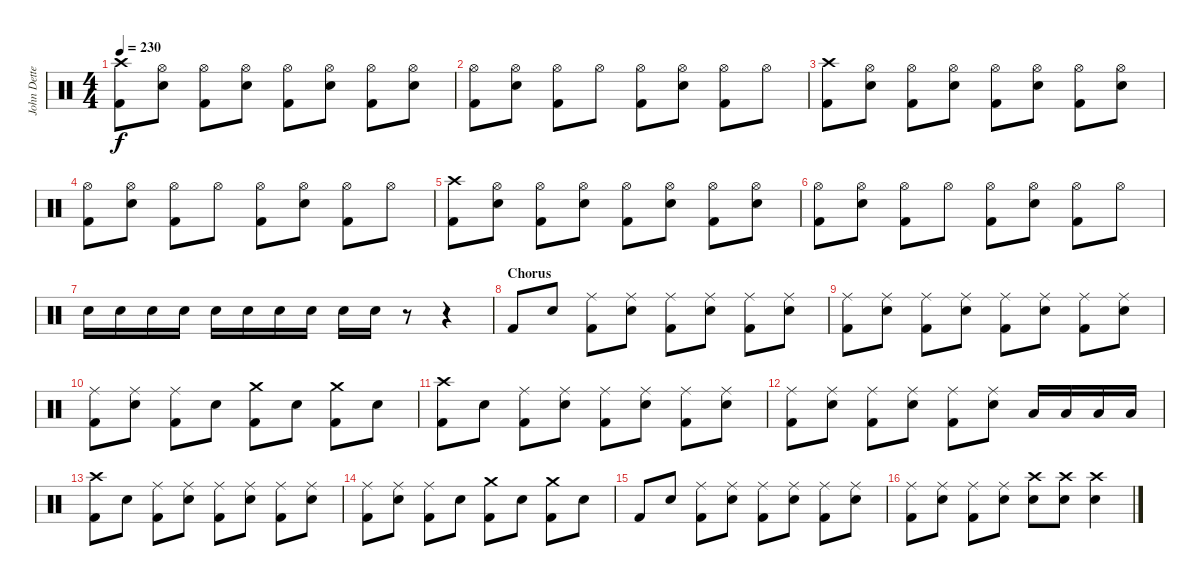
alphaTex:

\track ("John Dette" "John Dette") {instrument percussion}
\staff {score}
\articulation defaults
\ts (4 4)
\tempo 230
\clef neutral
\ks c
("Crash high (hit)" "Kick (hit) 2").8{dy f} ("Hi-Hat (open)" "Snare (hit) 2").8 ("Hi-Hat (open)" "Kick (hit) 2").8 ("Hi-Hat (open)" "Snare (hit) 2").8 ("Hi-Hat (open)" "Kick (hit) 2").8 ("Hi-Hat (open)" "Snare (hit) 2").8 ("Hi-Hat (open)" "Kick (hit) 2").8 ("Hi-Hat (open)" "Snare (hit) 2").8 |
("Hi-Hat (open)" "Kick (hit) 2").8 ("Hi-Hat (open)" "Snare (hit) 2").8 ("Hi-Hat (open)" "Kick (hit) 2").8 "Hi-Hat (open)".8 ("Hi-Hat (open)" "Kick (hit) 2").8 ("Hi-Hat (open)" "Snare (hit) 2").8 ("Hi-Hat (open)" "Kick (hit) 2").8 "Hi-Hat (open)".8 |
("Crash high (hit)" "Kick (hit) 2").8 ("Hi-Hat (open)" "Snare (hit) 2").8 ("Hi-Hat (open)" "Kick (hit) 2").8 ("Hi-Hat (open)" "Snare (hit) 2").8 ("Hi-Hat (open)" "Kick (hit) 2").8 ("Hi-Hat (open)" "Snare (hit) 2").8 ("Hi-Hat (open)" "Kick (hit) 2").8 ("Hi-Hat (open)" "Snare (hit) 2").8 |
("Hi-Hat (open)" "Kick (hit) 2").8 ("Hi-Hat (open)" "Snare (hit) 2").8 ("Hi-Hat (open)" "Kick (hit) 2").8 "Hi-Hat (open)".8 ("Hi-Hat (open)" "Kick (hit) 2").8 ("Hi-Hat (open)" "Snare (hit) 2").8 ("Hi-Hat (open)" "Kick (hit) 2").8 "Hi-Hat (open)".8 |
("Crash high (hit)" "Kick (hit) 2").8 ("Hi-Hat (open)" "Snare (hit) 2").8 ("Hi-Hat (open)" "Kick (hit) 2").8 ("Hi-Hat (open)" "Snare (hit) 2").8 ("Hi-Hat (open)" "Kick (hit) 2").8 ("Hi-Hat (open)" "Snare (hit) 2").8 ("Hi-Hat (open)" "Kick (hit) 2").8 ("Hi-Hat (open)" "Snare (hit) 2").8 |
("Hi-Hat (open)" "Kick (hit) 2").8 ("Hi-Hat (open)" "Snare (hit) 2").8 ("Hi-Hat (open)" "Kick (hit) 2").8 "Hi-Hat (open)".8 ("Hi-Hat (open)" "Kick (hit) 2").8 ("Hi-Hat (open)" "Snare (hit) 2").8 ("Hi-Hat (open)" "Kick (hit) 2").8 "Hi-Hat (open)".8 |
"Snare (hit) 2".16 "Snare (hit) 2".16 "Snare (hit) 2".16 "Snare (hit) 2".16 "Snare (hit) 2".16 "Snare (hit) 2".16 "Snare (hit) 2".16 "Snare (hit) 2".16 "Snare (hit) 2".16 "Snare (hit) 2".16 r.8 r.4 |
\section ("" "Chorus")
"Kick (hit) 2".8 "Snare (hit) 2".8 ("Ride (middle)" "Kick (hit) 2").8 ("Ride (middle)" "Snare (hit) 2").8 ("Ride (middle)" "Kick (hit) 2").8 ("Ride (middle)" "Snare (hit) 2").8 ("Ride (middle)" "Kick (hit) 2").8 ("Ride (middle)" "Snare (hit) 2").8 |
("Ride (middle)" "Kick (hit) 2").8 ("Ride (middle)" "Snare (hit) 2").8 ("Ride (middle)" "Kick (hit) 2").8 ("Ride (middle)" "Snare (hit) 2").8 ("Ride (middle)" "Kick (hit) 2").8 ("Ride (middle)" "Snare (hit) 2").8 ("Ride (middle)" "Kick (hit) 2").8 ("Ride (middle)" "Snare (hit) 2").8 |
("Ride (middle)" "Kick (hit) 2").8 ("Ride (middle)" "Snare (hit) 2").8 ("Ride (middle)" "Kick (hit) 2").8 "Snare (hit) 2".8 ("Crash medium (hit)" "Kick (hit) 2").8 "Snare (hit) 2".8 ("Crash medium (hit)" "Kick (hit) 2").8 "Snare (hit) 2".8 |
("Crash high (hit)" "Kick (hit) 2").8 "Snare (hit) 2".8 ("Ride (middle)" "Kick (hit) 2").8 ("Ride (middle)" "Snare (hit) 2").8 ("Ride (middle)" "Kick (hit) 2").8 ("Ride (middle)" "Snare (hit) 2").8 ("Ride (middle)" "Kick (hit) 2").8 ("Ride (middle)" "Snare (hit) 2").8 |
("Ride (middle)" "Kick (hit) 2").8 ("Ride (middle)" "Snare (hit) 2").8 ("Ride (middle)" "Kick (hit) 2").8 ("Ride (middle)" "Snare (hit) 2").8 ("Ride (middle)" "Kick (hit) 2").8 ("Ride (middle)" "Snare (hit) 2").8 "Low Floor Tom (hit)".16 "Low Floor Tom (hit)".16 "Low Floor Tom (hit)".16 "Low Floor Tom (hit)".16 |
("Crash high (hit)" "Kick (hit) 2").8 "Snare (hit) 2".8 ("Ride (middle)" "Kick (hit) 2").8 ("Ride (middle)" "Snare (hit) 2").8 ("Ride (middle)" "Kick (hit) 2").8 ("Ride (middle)" "Snare (hit) 2").8 ("Ride (middle)" "Kick (hit) 2").8 ("Ride (middle)" "Snare (hit) 2").8 |
("Ride (middle)" "Kick (hit) 2").8 ("Ride (middle)" "Snare (hit) 2").8 ("Ride (middle)" "Kick (hit) 2").8 "Snare (hit) 2".8 ("Crash medium (hit)" "Kick (hit) 2").8 "Snare (hit) 2".8 ("Crash medium (hit)" "Kick (hit) 2").8 "Snare (hit) 2".8 |
"Kick (hit) 2".8 "Snare (hit) 2".8 ("Ride (middle)" "Kick (hit) 2").8 ("Ride (middle)" "Snare (hit) 2").8 ("Ride (middle)" "Kick (hit) 2").8 ("Ride (middle)" "Snare (hit) 2").8 ("Ride (middle)" "Kick (hit) 2").8 ("Ride (middle)" "Snare (hit) 2").8 |
("Ride (middle)" "Kick (hit) 2").8 ("Ride (middle)" "Snare (hit) 2").8 ("Ride (middle)" "Kick (hit) 2").8 ("Ride (middle)" "Snare (hit) 2").8 ("Crash high (hit)" "Snare (hit) 2").8 ("Crash high (hit)" "Snare (hit) 2").8 ("Crash high (hit)" "Snare (hit) 2").4
